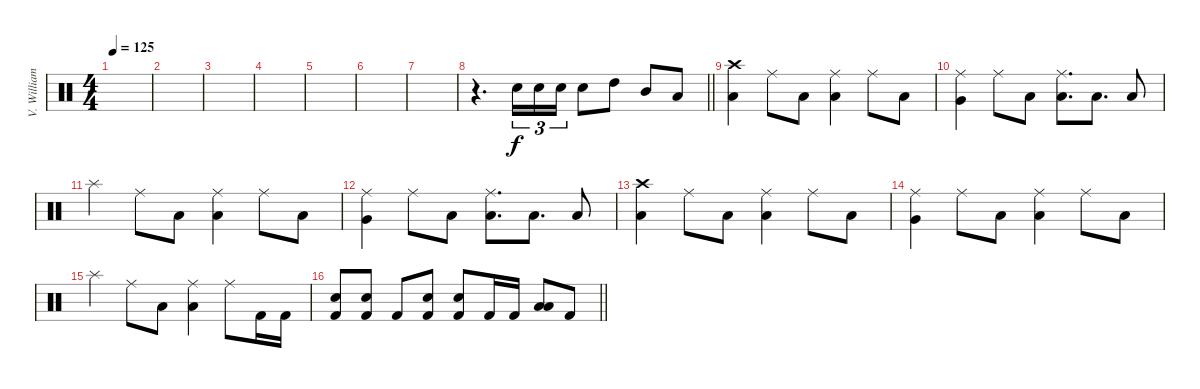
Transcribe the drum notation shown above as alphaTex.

\track ("V. Williams (Drums)" "V. William") {instrument percussion}
\staff {score}
\articulation defaults
\ts (4 4)
\tempo 125
\clef neutral
\ks c
|
|
|
|
|
|
|
\barLineRight lightlight
r.4{d} "Electric Snare (hit)".16{tu (3 2)} "Electric Snare (hit)".16{tu (3 2)} "Electric Snare (hit)".16{tu (3 2)} "Electric Snare (hit)".8 "High Tom (hit)".8 "Mid Tom (hit)".8 "Low Tom (hit)".8 |
\section ("" "")
("Crash high (hit)" "Low Tom (hit)").4 "Ride (middle)".8 "Low Tom (hit)".8 ("Ride (middle)" "Low Tom (hit)").4 "Ride (middle)".8 "Low Floor Tom (hit)".8 |
("Ride (middle)" "Very Low Tom (hit)").4 "Ride (middle)".8 "Low Tom (hit)".8 ("Ride (middle)" "Low Tom (hit)").8{d} "Low Tom (hit)".8{d} "Low Tom (hit)".8 |
"Splash (hit)".4 "Ride (middle)".8 "Low Tom (hit)".8 ("Ride (middle)" "Low Tom (hit)").4 "Ride (middle)".8 "Low Floor Tom (hit)".8 |
("Ride (middle)" "Very Low Tom (hit)").4 "Ride (middle)".8 "Low Tom (hit)".8 ("Ride (middle)" "Low Tom (hit)").8{d} "Low Tom (hit)".8{d} "Low Tom (hit)".8 |
("Crash high (hit)" "Low Tom (hit)").4 "Ride (middle)".8 "Low Tom (hit)".8 ("Ride (middle)" "Low Tom (hit)").4 "Ride (middle)".8 "Low Floor Tom (hit)".8 |
("Ride (middle)" "Very Low Tom (hit)").4 "Ride (middle)".8 "Low Tom (hit)".8 ("Ride (middle)" "Low Tom (hit)").4 "Ride (middle)".8 "Low Floor Tom (hit)".8 |
"Splash (hit)".4 "Ride (middle)".8 "Low Tom (hit)".8 ("Ride (middle)" "Low Tom (hit)").4 "Ride (middle)".8 "Kick (hit) 2".16 "Kick (hit) 2".16 |
\barLineRight lightlight
("Electric Snare (hit)" "Kick (hit) 2").8 ("Electric Snare (hit)" "Kick (hit) 2").8 "Kick (hit) 2".8 ("Electric Snare (hit)" "Kick (hit) 2").8 ("Electric Snare (hit)" "Kick (hit) 2").8 "Kick (hit) 2".16 "Kick (hit) 2".16 ("Low Tom (hit)" "Low Floor Tom (hit)").8 "Kick (hit) 2".8
